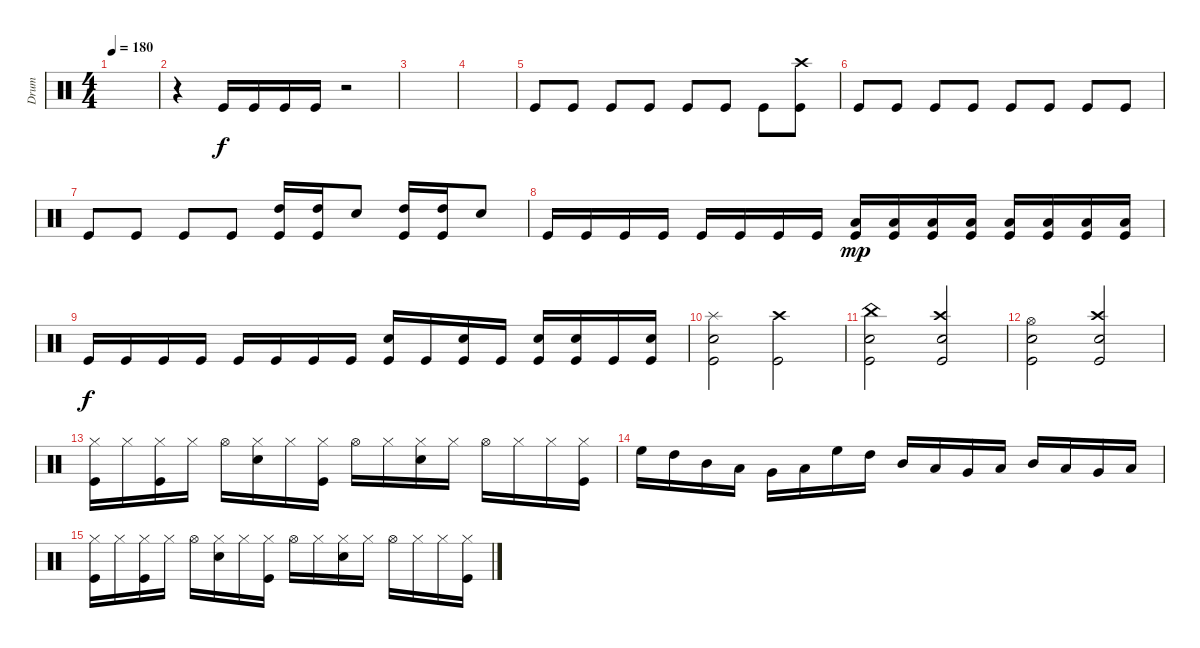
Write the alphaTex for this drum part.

\track ("Drum" "Drum") {instrument percussion}
\staff {score}
\articulation defaults
\ts (4 4)
\tempo 180
\clef neutral
\ks c
|
r.4 "Kick (hit)".16 "Kick (hit)".16 "Kick (hit)".16 "Kick (hit)".16 r.2 |
|
|
"Kick (hit)".8 "Kick (hit)".8 "Kick (hit)".8 "Kick (hit)".8 "Kick (hit)".8 "Kick (hit)".8 "Kick (hit)".8 ("Crash high (hit)" "Kick (hit)").8 |
"Kick (hit)".8 "Kick (hit)".8 "Kick (hit)".8 "Kick (hit)".8 "Kick (hit)".8 "Kick (hit)".8 "Kick (hit)".8 "Kick (hit)".8 |
"Kick (hit)".8 "Kick (hit)".8 "Kick (hit)".8 "Kick (hit)".8 ("High Tom (hit)" "Kick (hit)").16 ("High Tom (hit)" "Kick (hit)").16 "Electric Snare (hit)".8 ("High Tom (hit)" "Kick (hit)").16 ("High Tom (hit)" "Kick (hit)").16 "Electric Snare (hit)".8 |
"Kick (hit)".16 "Kick (hit)".16 "Kick (hit)".16 "Kick (hit)".16 "Kick (hit)".16 "Kick (hit)".16 "Kick (hit)".16 "Kick (hit)".16 ("Low Floor Tom (hit)" "Kick (hit)").16{dy mp} ("Low Floor Tom (hit)" "Kick (hit)").16 ("Low Floor Tom (hit)" "Kick (hit)").16 ("Low Floor Tom (hit)" "Kick (hit)").16 ("Low Floor Tom (hit)" "Kick (hit)").16 ("Low Floor Tom (hit)" "Kick (hit)").16 ("Low Floor Tom (hit)" "Kick (hit)").16 ("Low Floor Tom (hit)" "Kick (hit)").16 |
"Kick (hit)".16{dy f} "Kick (hit)".16 "Kick (hit)".16 "Kick (hit)".16 "Kick (hit)".16 "Kick (hit)".16 "Kick (hit)".16 "Kick (hit)".16 ("Electric Snare (hit)" "Kick (hit)").16 "Kick (hit)".16 ("Electric Snare (hit)" "Kick (hit)").16 "Kick (hit)".16 ("Electric Snare (hit)" "Kick (hit)").16 ("Electric Snare (hit)" "Kick (hit)").16 "Kick (hit)".16 ("Electric Snare (hit)" "Kick (hit)").16 |
("Splash (hit)" "Electric Snare (hit)" "Kick (hit)").2 ("Crash high (hit)" "Kick (hit)").2 |
("China (hit)" "Electric Snare (hit)" "Kick (hit)").2 ("Crash high (hit)" "Electric Snare (hit)" "Kick (hit)").2 |
("Hi-Hat (open)" "Electric Snare (hit)" "Kick (hit)").2 ("Crash high (hit)" "Electric Snare (hit)" "Kick (hit)").2 |
("Hi-Hat (closed)" "Kick (hit)").16 "Hi-Hat (closed)".16 ("Hi-Hat (closed)" "Kick (hit)").16 "Hi-Hat (closed)".16 "Hi-Hat (open)".16 ("Hi-Hat (closed)" "Electric Snare (hit)").16 "Hi-Hat (closed)".16 ("Hi-Hat (closed)" "Kick (hit)").16 "Hi-Hat (open)".16 "Hi-Hat (closed)".16 ("Hi-Hat (closed)" "Electric Snare (hit)").16 "Hi-Hat (closed)".16 "Hi-Hat (open)".16 "Hi-Hat (closed)".16 "Hi-Hat (closed)".16 ("Hi-Hat (closed)" "Kick (hit)").16 |
"High Floor Tom (hit)".16 "High Tom (hit)".16 "Mid Tom (hit)".16 "Low Tom (hit)".16 "Very Low Tom (hit)".16 "Low Floor Tom (hit)".16 "High Floor Tom (hit)".16 "High Tom (hit)".16 "Mid Tom (hit)".16 "Low Tom (hit)".16 "Very Low Tom (hit)".16 "Low Floor Tom (hit)".16 "Mid Tom (hit)".16 "Low Tom (hit)".16 "Very Low Tom (hit)".16 "Low Floor Tom (hit)".16 |
("Hi-Hat (closed)" "Kick (hit)").16 "Hi-Hat (closed)".16 ("Hi-Hat (closed)" "Kick (hit)").16 "Hi-Hat (closed)".16 "Hi-Hat (open)".16 ("Hi-Hat (closed)" "Electric Snare (hit)").16 "Hi-Hat (closed)".16 ("Hi-Hat (closed)" "Kick (hit)").16 "Hi-Hat (open)".16 "Hi-Hat (closed)".16 ("Hi-Hat (closed)" "Electric Snare (hit)").16 "Hi-Hat (closed)".16 "Hi-Hat (open)".16 "Hi-Hat (closed)".16 "Hi-Hat (closed)".16 ("Hi-Hat (closed)" "Kick (hit)").16
